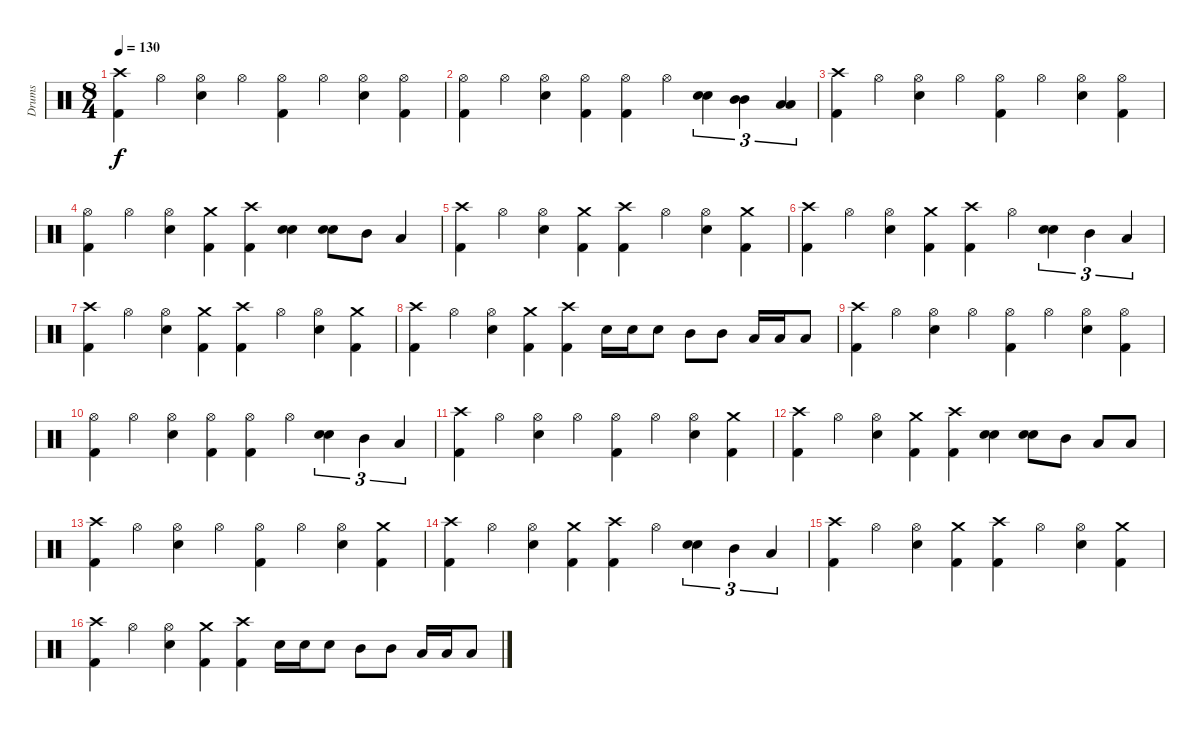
\track ("Drums" "Drums") {instrument percussion}
\staff {score}
\articulation defaults
\ts (8 4)
\tempo 130
\clef neutral
\ks c
("Crash high (hit)" "Kick (hit) 2").4{dy f} "Hi-Hat (open)".4 ("Hi-Hat (open)" "Electric Snare (hit)").4 "Hi-Hat (open)".4 ("Hi-Hat (open)" "Kick (hit) 2").4 "Hi-Hat (open)".4 ("Hi-Hat (open)" "Electric Snare (hit)").4 ("Hi-Hat (open)" "Kick (hit) 2").4 |
("Hi-Hat (open)" "Kick (hit) 2").4 "Hi-Hat (open)".4 ("Hi-Hat (open)" "Electric Snare (hit)").4 ("Hi-Hat (open)" "Kick (hit) 2").4 ("Hi-Hat (open)" "Kick (hit) 2").4 "Hi-Hat (open)".4 ("Electric Snare (hit)" "Electric Snare (hit)").4{tu (3 2) bu 60} ("Mid Tom (hit)" "Mid Tom (hit)").4{tu (3 2) bu 60} ("Low Tom (hit)" "Low Tom (hit)").4{tu (3 2) bu 60} |
("Crash high (hit)" "Kick (hit) 2").4 "Hi-Hat (open)".4 ("Hi-Hat (open)" "Electric Snare (hit)").4 "Hi-Hat (open)".4 ("Hi-Hat (open)" "Kick (hit) 2").4 "Hi-Hat (open)".4 ("Hi-Hat (open)" "Electric Snare (hit)").4 ("Hi-Hat (open)" "Kick (hit) 2").4 |
("Hi-Hat (open)" "Kick (hit) 2").4 "Hi-Hat (open)".4 ("Hi-Hat (open)" "Electric Snare (hit)").4 ("Crash medium (hit)" "Kick (hit) 2").4 ("Crash high (hit)" "Kick (hit) 2").4 ("Electric Snare (hit)" "Electric Snare (hit)").4{bu 60} ("Electric Snare (hit)" "Electric Snare (hit)").8{bu 60} "Mid Tom (hit)".8 "Low Tom (hit)".4 |
("Crash high (hit)" "Kick (hit) 2").4 "Hi-Hat (open)".4 ("Hi-Hat (open)" "Electric Snare (hit)").4 ("Crash medium (hit)" "Kick (hit) 2").4 ("Crash high (hit)" "Kick (hit) 2").4 "Hi-Hat (open)".4 ("Hi-Hat (open)" "Electric Snare (hit)").4 ("Crash medium (hit)" "Kick (hit) 2").4 |
("Crash high (hit)" "Kick (hit) 2").4 "Hi-Hat (open)".4 ("Hi-Hat (open)" "Electric Snare (hit)").4 ("Crash medium (hit)" "Kick (hit) 2").4 ("Crash high (hit)" "Kick (hit) 2").4 "Hi-Hat (open)".4 ("Electric Snare (hit)" "Electric Snare (hit)").4{tu (3 2) bu 60} "Mid Tom (hit)".4{tu (3 2)} "Low Tom (hit)".4{tu (3 2)} |
("Crash high (hit)" "Kick (hit) 2").4 "Hi-Hat (open)".4 ("Hi-Hat (open)" "Electric Snare (hit)").4 ("Crash medium (hit)" "Kick (hit) 2").4 ("Crash high (hit)" "Kick (hit) 2").4 "Hi-Hat (open)".4 ("Hi-Hat (open)" "Electric Snare (hit)").4 ("Crash medium (hit)" "Kick (hit) 2").4 |
("Crash high (hit)" "Kick (hit) 2").4 "Hi-Hat (open)".4 ("Hi-Hat (open)" "Electric Snare (hit)").4 ("Crash medium (hit)" "Kick (hit) 2").4 ("Crash high (hit)" "Kick (hit) 2").4 "Electric Snare (hit)".16 "Electric Snare (hit)".16 "Electric Snare (hit)".8 "Mid Tom (hit)".8 "Mid Tom (hit)".8 "Low Tom (hit)".16 "Low Tom (hit)".16 "Low Tom (hit)".8 |
("Crash high (hit)" "Kick (hit) 2").4 "Hi-Hat (open)".4 ("Hi-Hat (open)" "Electric Snare (hit)").4 "Hi-Hat (open)".4 ("Hi-Hat (open)" "Kick (hit) 2").4 "Hi-Hat (open)".4 ("Hi-Hat (open)" "Electric Snare (hit)").4 ("Hi-Hat (open)" "Kick (hit) 2").4 |
("Hi-Hat (open)" "Kick (hit) 2").4 "Hi-Hat (open)".4 ("Hi-Hat (open)" "Electric Snare (hit)").4 ("Hi-Hat (open)" "Kick (hit) 2").4 ("Hi-Hat (open)" "Kick (hit) 2").4 "Hi-Hat (open)".4 ("Electric Snare (hit)" "Electric Snare (hit)").4{tu (3 2) bu 60} "Mid Tom (hit)".4{tu (3 2)} "Low Tom (hit)".4{tu (3 2)} |
("Crash high (hit)" "Kick (hit) 2").4 "Hi-Hat (open)".4 ("Hi-Hat (open)" "Electric Snare (hit)").4 "Hi-Hat (open)".4 ("Hi-Hat (open)" "Kick (hit) 2").4 "Hi-Hat (open)".4 ("Hi-Hat (open)" "Electric Snare (hit)").4 ("Crash medium (hit)" "Kick (hit) 2").4 |
("Crash high (hit)" "Kick (hit) 2").4 "Hi-Hat (open)".4 ("Hi-Hat (open)" "Electric Snare (hit)").4 ("Crash medium (hit)" "Kick (hit) 2").4 ("Crash high (hit)" "Kick (hit) 2").4 ("Electric Snare (hit)" "Electric Snare (hit)").4{bu 60} ("Electric Snare (hit)" "Electric Snare (hit)").8{bu 60} "Mid Tom (hit)".8 "Low Tom (hit)".8 "Low Tom (hit)".8 |
("Crash high (hit)" "Kick (hit) 2").4 "Hi-Hat (open)".4 ("Hi-Hat (open)" "Electric Snare (hit)").4 "Hi-Hat (open)".4 ("Hi-Hat (open)" "Kick (hit) 2").4 "Hi-Hat (open)".4 ("Hi-Hat (open)" "Electric Snare (hit)").4 ("Crash medium (hit)" "Kick (hit) 2").4 |
("Crash high (hit)" "Kick (hit) 2").4 "Hi-Hat (open)".4 ("Hi-Hat (open)" "Electric Snare (hit)").4 ("Crash medium (hit)" "Kick (hit) 2").4 ("Crash high (hit)" "Kick (hit) 2").4 "Hi-Hat (open)".4 ("Electric Snare (hit)" "Electric Snare (hit)").4{tu (3 2) bu 60} "Mid Tom (hit)".4{tu (3 2)} "Low Tom (hit)".4{tu (3 2)} |
("Crash high (hit)" "Kick (hit) 2").4 "Hi-Hat (open)".4 ("Hi-Hat (open)" "Electric Snare (hit)").4 ("Crash medium (hit)" "Kick (hit) 2").4 ("Crash high (hit)" "Kick (hit) 2").4 "Hi-Hat (open)".4 ("Hi-Hat (open)" "Electric Snare (hit)").4 ("Crash medium (hit)" "Kick (hit) 2").4 |
("Crash high (hit)" "Kick (hit) 2").4 "Hi-Hat (open)".4 ("Hi-Hat (open)" "Electric Snare (hit)").4 ("Crash medium (hit)" "Kick (hit) 2").4 ("Crash high (hit)" "Kick (hit) 2").4 "Electric Snare (hit)".16 "Electric Snare (hit)".16 "Electric Snare (hit)".8 "Mid Tom (hit)".8 "Mid Tom (hit)".8 "Low Tom (hit)".16 "Low Tom (hit)".16 "Low Tom (hit)".8
